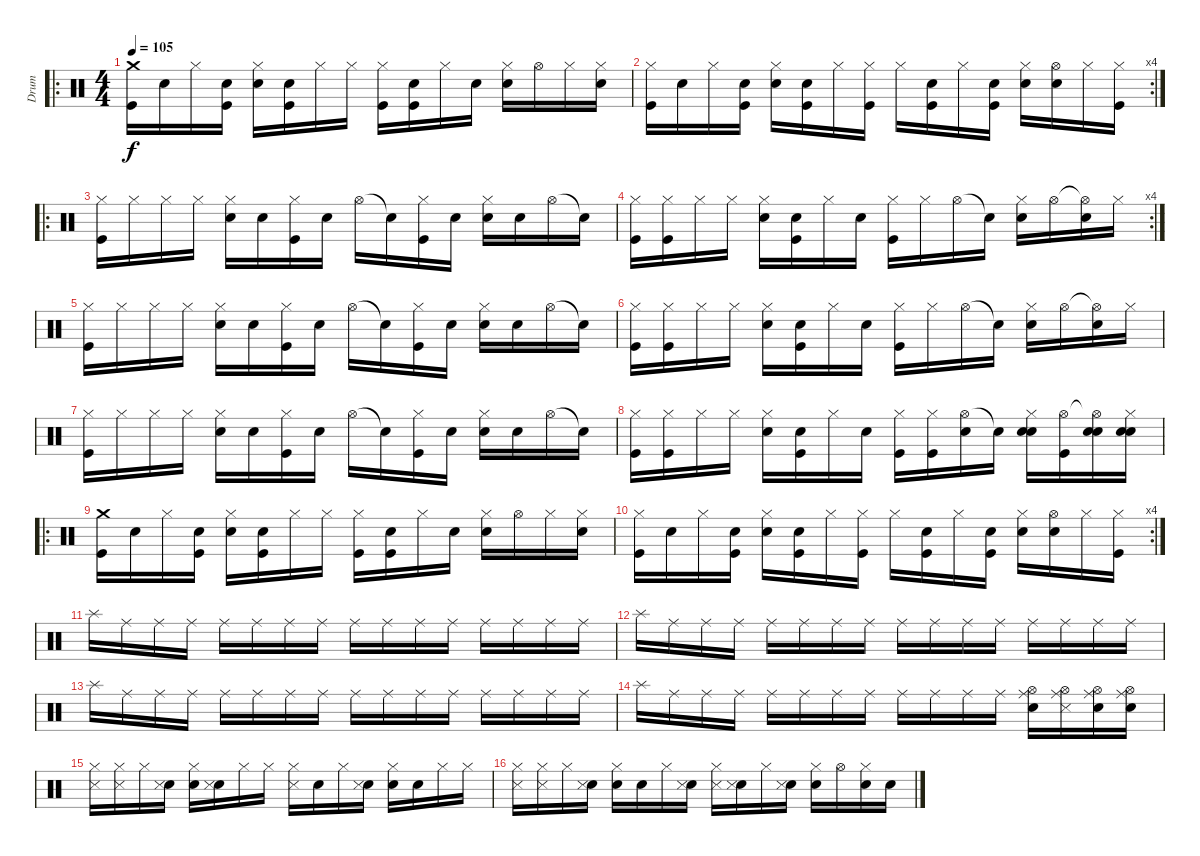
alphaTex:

\track ("Drum" "Drum") {instrument percussion}
\staff {score}
\articulation defaults
\ro
\ts (4 4)
\tempo 105
\clef neutral
\ks c
("Crash medium (hit)" "Kick (hit)").16{dy f} "Snare (hit)".16 "Hi-Hat (closed)".16 ("Snare (hit)" "Kick (hit)").16 ("Hi-Hat (closed)" "Snare (hit) 2").16 ("Snare (hit)" "Kick (hit)").16 "Hi-Hat (closed)".16 "Hi-Hat (closed)".16 ("Hi-Hat (closed)" "Kick (hit)").16 ("Snare (hit)" "Kick (hit)").16 "Hi-Hat (closed)".16 "Snare (hit)".16 ("Hi-Hat (closed)" "Snare (hit) 2").16 "Hi-Hat (open)".16 "Hi-Hat (closed)".16 ("Hi-Hat (closed)" "Snare (hit) 2").16 |
\rc 4
("Hi-Hat (closed)" "Kick (hit)").16 "Snare (hit)".16 "Hi-Hat (closed)".16 ("Snare (hit)" "Kick (hit)").16 ("Hi-Hat (closed)" "Snare (hit) 2").16 ("Snare (hit)" "Kick (hit)").16 "Hi-Hat (closed)".16 ("Hi-Hat (closed)" "Kick (hit)").16 "Hi-Hat (closed)".16 ("Snare (hit)" "Kick (hit)").16 "Hi-Hat (closed)".16 ("Snare (hit)" "Kick (hit)").16 ("Hi-Hat (closed)" "Snare (hit) 2").16 ("Hi-Hat (open)" "Snare (hit) 2").16 "Hi-Hat (closed)".16 ("Hi-Hat (closed)" "Kick (hit)").16 |
\ro
("Hi-Hat (closed)" "Kick (hit)").16 "Hi-Hat (closed)".16 "Hi-Hat (closed)".16 "Hi-Hat (closed)".16 ("Hi-Hat (closed)" "Metronome (bell)").16 "Snare (hit)".16 ("Hi-Hat (closed)" "Kick (hit)").16 "Snare (hit)".16 "Hi-Hat (open)".16 "Snare (hit)"{t}.16 ("Hi-Hat (closed)" "Kick (hit)").16 "Snare (hit)".16 ("Hi-Hat (closed)" "Metronome (bell)").16 "Snare (hit)".16 "Hi-Hat (open)".16 "Snare (hit)"{t}.16 |
\rc 4
("Hi-Hat (closed)" "Kick (hit)").16 ("Hi-Hat (closed)" "Kick (hit)").16 "Hi-Hat (closed)".16 "Hi-Hat (closed)".16 ("Hi-Hat (closed)" "Metronome (bell)").16 ("Snare (hit)" "Kick (hit)").16 "Hi-Hat (closed)".16 "Snare (hit)".16 ("Hi-Hat (closed)" "Kick (hit)").16 "Hi-Hat (closed)".16 "Hi-Hat (open)".16 "Snare (hit)"{t}.16 ("Hi-Hat (closed)" "Metronome (bell)").16 "Hi-Hat (open)".16 ("Hi-Hat (open)"{t} "Metronome (bell)").16 "Hi-Hat (closed)".16 |
("Hi-Hat (closed)" "Kick (hit)").16 "Hi-Hat (closed)".16 "Hi-Hat (closed)".16 "Hi-Hat (closed)".16 ("Hi-Hat (closed)" "Metronome (bell)").16 "Snare (hit)".16 ("Hi-Hat (closed)" "Kick (hit)").16 "Snare (hit)".16 "Hi-Hat (open)".16 "Snare (hit)"{t}.16 ("Hi-Hat (closed)" "Kick (hit)").16 "Snare (hit)".16 ("Hi-Hat (closed)" "Metronome (bell)").16 "Snare (hit)".16 "Hi-Hat (open)".16 "Snare (hit)"{t}.16 |
("Hi-Hat (closed)" "Kick (hit)").16 ("Hi-Hat (closed)" "Kick (hit)").16 "Hi-Hat (closed)".16 "Hi-Hat (closed)".16 ("Hi-Hat (closed)" "Metronome (bell)").16 ("Snare (hit)" "Kick (hit)").16 "Hi-Hat (closed)".16 "Snare (hit)".16 ("Hi-Hat (closed)" "Kick (hit)").16 "Hi-Hat (closed)".16 "Hi-Hat (open)".16 "Snare (hit)"{t}.16 ("Hi-Hat (closed)" "Metronome (bell)").16 "Hi-Hat (open)".16 ("Hi-Hat (open)"{t} "Metronome (bell)").16 "Hi-Hat (closed)".16 |
("Hi-Hat (closed)" "Kick (hit)").16 "Hi-Hat (closed)".16 "Hi-Hat (closed)".16 "Hi-Hat (closed)".16 ("Hi-Hat (closed)" "Metronome (bell)").16 "Snare (hit)".16 ("Hi-Hat (closed)" "Kick (hit)").16 "Snare (hit)".16 "Hi-Hat (open)".16 "Snare (hit)"{t}.16 ("Hi-Hat (closed)" "Kick (hit)").16 "Snare (hit)".16 ("Hi-Hat (closed)" "Metronome (bell)").16 "Snare (hit)".16 "Hi-Hat (open)".16 "Snare (hit)"{t}.16 |
("Hi-Hat (closed)" "Kick (hit)").16 ("Hi-Hat (closed)" "Kick (hit)").16 "Hi-Hat (closed)".16 "Hi-Hat (closed)".16 ("Hi-Hat (closed)" "Metronome (bell)").16 ("Snare (hit)" "Kick (hit)").16 "Hi-Hat (closed)".16 "Snare (hit)".16 ("Hi-Hat (closed)" "Kick (hit)").16 ("Hi-Hat (closed)" "Kick (hit)").16 ("Hi-Hat (open)" "Metronome (bell)").16 "Snare (hit)"{t}.16 ("Hi-Hat (closed)" "Metronome (bell)" "Snare (hit) 2").16 ("Hi-Hat (open)" "Kick (hit)").16 ("Hi-Hat (open)"{t} "Metronome (bell)" "Snare (hit) 2").16 ("Hi-Hat (closed)" "Metronome (bell)" "Snare (hit) 2").16 |
\ro
("Crash medium (hit)" "Kick (hit)").16 "Snare (hit)".16 "Hi-Hat (closed)".16 ("Snare (hit)" "Kick (hit)").16 ("Hi-Hat (closed)" "Snare (hit) 2").16 ("Snare (hit)" "Kick (hit)").16 "Hi-Hat (closed)".16 "Hi-Hat (closed)".16 ("Hi-Hat (closed)" "Kick (hit)").16 ("Snare (hit)" "Kick (hit)").16 "Hi-Hat (closed)".16 "Snare (hit)".16 ("Hi-Hat (closed)" "Snare (hit) 2").16 "Hi-Hat (open)".16 "Hi-Hat (closed)".16 ("Hi-Hat (closed)" "Snare (hit) 2").16 |
\rc 4
("Hi-Hat (closed)" "Kick (hit)").16 "Snare (hit)".16 "Hi-Hat (closed)".16 ("Snare (hit)" "Kick (hit)").16 ("Hi-Hat (closed)" "Snare (hit) 2").16 ("Snare (hit)" "Kick (hit)").16 "Hi-Hat (closed)".16 ("Hi-Hat (closed)" "Kick (hit)").16 "Hi-Hat (closed)".16 ("Snare (hit)" "Kick (hit)").16 "Hi-Hat (closed)".16 ("Snare (hit)" "Kick (hit)").16 ("Hi-Hat (closed)" "Snare (hit) 2").16 ("Hi-Hat (open)" "Snare (hit) 2").16 "Hi-Hat (closed)".16 ("Hi-Hat (closed)" "Kick (hit)").16 |
"Splash (hit)".16 "Ride (middle)".16 "Ride (middle)".16 "Ride (middle)".16 "Ride (middle)".16 "Ride (middle)".16 "Ride (middle)".16 "Ride (middle)".16 "Ride (middle)".16 "Ride (middle)".16 "Ride (middle)".16 "Ride (middle)".16 "Ride (middle)".16 "Ride (middle)".16 "Ride (middle)".16 "Ride (middle)".16 |
"Splash (hit)".16 "Ride (middle)".16 "Ride (middle)".16 "Ride (middle)".16 "Ride (middle)".16 "Ride (middle)".16 "Ride (middle)".16 "Ride (middle)".16 "Ride (middle)".16 "Ride (middle)".16 "Ride (middle)".16 "Ride (middle)".16 "Ride (middle)".16 "Ride (middle)".16 "Ride (middle)".16 "Ride (middle)".16 |
"Splash (hit)".16 "Ride (middle)".16 "Ride (middle)".16 "Ride (middle)".16 "Ride (middle)".16 "Ride (middle)".16 "Ride (middle)".16 "Ride (middle)".16 "Ride (middle)".16 "Ride (middle)".16 "Ride (middle)".16 "Ride (middle)".16 "Ride (middle)".16 "Ride (middle)".16 "Ride (middle)".16 "Ride (middle)".16 |
"Splash (hit)".16 "Ride (middle)".16 "Ride (middle)".16 "Ride (middle)".16 "Ride (middle)".16 "Ride (middle)".16 "Ride (middle)".16 "Ride (middle)".16 "Ride (middle)".16 "Ride (middle)".16 "Ride (middle)".16 "Ride (middle)".16 ("Ride (middle)" "Hi-Hat (open)" "Metronome (bell)").16 ("Ride (middle)" "Hi-Hat (open)" "Metronome (hit)").16 ("Ride (middle)" "Hi-Hat (open)" "Metronome (bell)").16 ("Ride (middle)" "Hi-Hat (open)" "Metronome (bell)").16 |
("Hi-Hat (closed)" "Metronome (hit)").16 ("Hi-Hat (closed)" "Metronome (hit)").16 "Hi-Hat (closed)".16 ("Snare (hit)" "Metronome (hit)").16 ("Hi-Hat (closed)" "Metronome (bell)").16 ("Snare (hit)" "Metronome (hit)").16 "Hi-Hat (closed)".16 "Hi-Hat (closed)".16 ("Hi-Hat (closed)" "Metronome (hit)").16 "Snare (hit)".16 "Hi-Hat (closed)".16 ("Snare (hit)" "Metronome (hit)").16 ("Hi-Hat (closed)" "Metronome (bell)").16 "Snare (hit)".16 "Hi-Hat (closed)".16 "Hi-Hat (closed)".16 |
("Hi-Hat (closed)" "Metronome (hit)").16 ("Hi-Hat (closed)" "Metronome (hit)").16 "Hi-Hat (closed)".16 ("Snare (hit)" "Metronome (hit)").16 ("Hi-Hat (closed)" "Metronome (bell)").16 "Snare (hit)".16 "Hi-Hat (closed)".16 ("Snare (hit)" "Metronome (hit)").16 ("Hi-Hat (closed)" "Metronome (hit)").16 ("Snare (hit)" "Metronome (hit)").16 "Hi-Hat (closed)".16 ("Snare (hit)" "Metronome (hit)").16 ("Hi-Hat (closed)" "Metronome (bell)").16 "Hi-Hat (open)".16 ("Hi-Hat (closed)" "Metronome (bell)").16 "Snare (hit)".16
